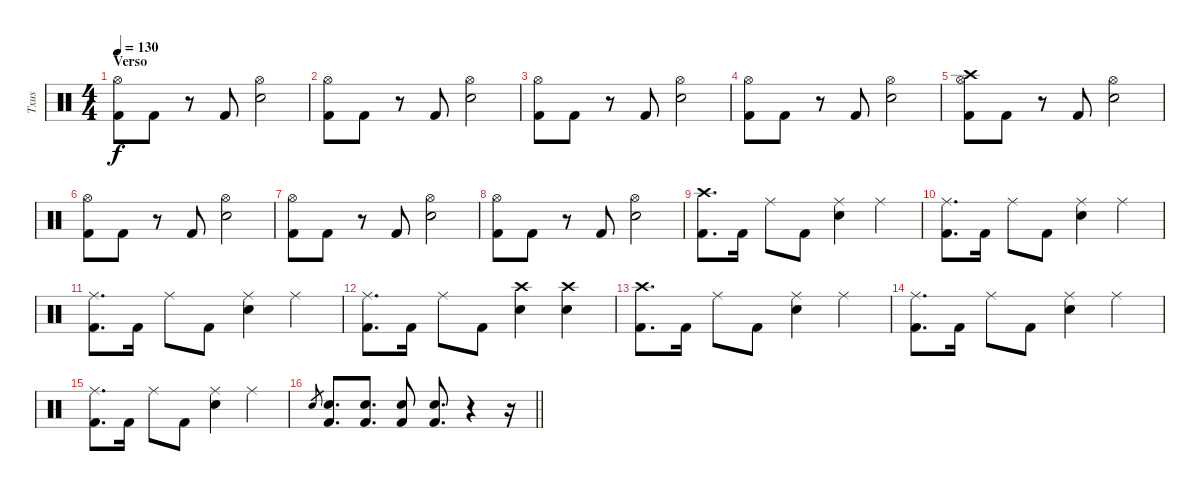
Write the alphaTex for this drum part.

\track ("Txus" "Txus") {instrument percussion}
\staff {score}
\articulation defaults
\ts (4 4)
\section ("" "Verso")
\tempo 130
\clef neutral
\ks c
("Hi-Hat (open)" "Kick (hit) 2").8{dy f} "Kick (hit) 2".8 r.8 "Kick (hit) 2".8 ("Hi-Hat (open)" "Electric Snare (hit)").2 |
("Hi-Hat (open)" "Kick (hit) 2").8 "Kick (hit) 2".8 r.8 "Kick (hit) 2".8 ("Hi-Hat (open)" "Electric Snare (hit)").2 |
("Hi-Hat (open)" "Kick (hit) 2").8 "Kick (hit) 2".8 r.8 "Kick (hit) 2".8 ("Hi-Hat (open)" "Electric Snare (hit)").2 |
("Hi-Hat (open)" "Kick (hit) 2").8 "Kick (hit) 2".8 r.8 "Kick (hit) 2".8 ("Hi-Hat (open)" "Electric Snare (hit)").2 |
("Hi-Hat (open)" "Crash high (hit)" "Kick (hit) 2").8 "Kick (hit) 2".8 r.8 "Kick (hit) 2".8 ("Hi-Hat (open)" "Electric Snare (hit)").2 |
("Hi-Hat (open)" "Kick (hit) 2").8 "Kick (hit) 2".8 r.8 "Kick (hit) 2".8 ("Hi-Hat (open)" "Electric Snare (hit)").2 |
("Hi-Hat (open)" "Kick (hit) 2").8 "Kick (hit) 2".8 r.8 "Kick (hit) 2".8 ("Hi-Hat (open)" "Electric Snare (hit)").2 |
("Hi-Hat (open)" "Kick (hit) 2").8 "Kick (hit) 2".8 r.8 "Kick (hit) 2".8 ("Hi-Hat (open)" "Electric Snare (hit)").2 |
("Crash high (hit)" "Kick (hit) 2").8{d} "Kick (hit) 2".16 "Ride (middle)".8 "Kick (hit) 2".8 ("Ride (middle)" "Electric Snare (hit)").4 "Ride (middle)".4 |
("Ride (middle)" "Kick (hit) 2").8{d} "Kick (hit) 2".16 "Ride (middle)".8 "Kick (hit) 2".8 ("Ride (middle)" "Electric Snare (hit)").4 "Ride (middle)".4 |
("Ride (middle)" "Kick (hit) 2").8{d} "Kick (hit) 2".16 "Ride (middle)".8 "Kick (hit) 2".8 ("Ride (middle)" "Electric Snare (hit)").4 "Ride (middle)".4 |
("Ride (middle)" "Kick (hit) 2").8{d} "Kick (hit) 2".16 "Ride (middle)".8 "Kick (hit) 2".8 ("Crash high (hit)" "Electric Snare (hit)").4 ("Crash high (hit)" "Electric Snare (hit)").4 |
("Crash high (hit)" "Kick (hit) 2").8{d} "Kick (hit) 2".16 "Ride (middle)".8 "Kick (hit) 2".8 ("Ride (middle)" "Electric Snare (hit)").4 "Ride (middle)".4 |
("Ride (middle)" "Kick (hit) 2").8{d} "Kick (hit) 2".16 "Ride (middle)".8 "Kick (hit) 2".8 ("Ride (middle)" "Electric Snare (hit)").4 "Ride (middle)".4 |
("Ride (middle)" "Kick (hit) 2").8{d} "Kick (hit) 2".16 "Ride (middle)".8 "Kick (hit) 2".8 ("Ride (middle)" "Electric Snare (hit)").4 "Ride (middle)".4 |
\barLineRight lightlight "Electric Snare (hit)".8{gr}
("Electric Snare (hit)" "Kick (hit) 2").8{d} ("Electric Snare (hit)" "Kick (hit) 2").8{d} ("Electric Snare (hit)" "Kick (hit) 2").8 ("Electric Snare (hit)" "Kick (hit) 2").8{d} r.4 r.16
